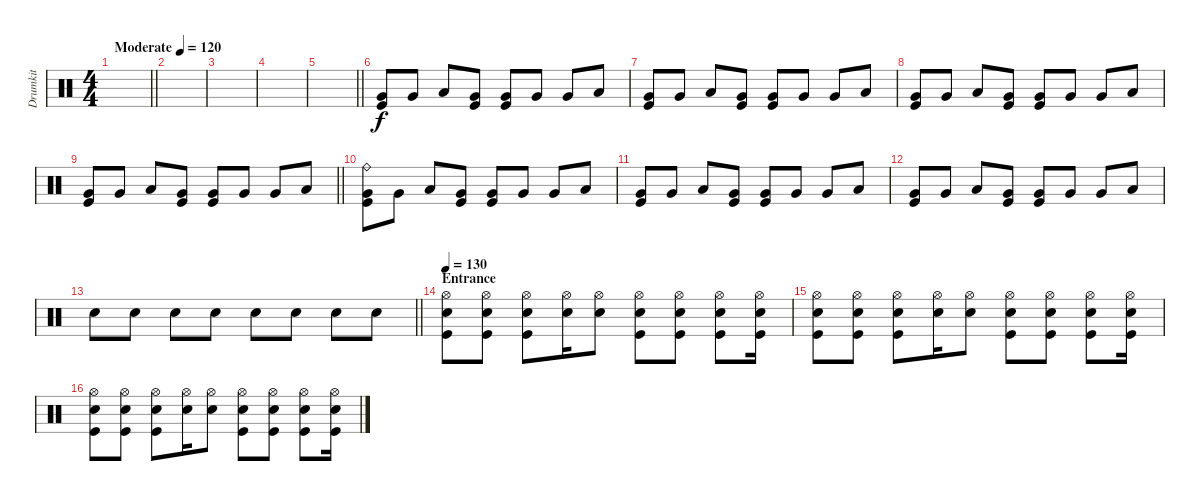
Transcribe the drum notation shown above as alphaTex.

\track ("Drumkit" "Drumkit") {instrument percussion}
\staff {score}
\articulation defaults
\ts (4 4)
\tempo (120 "Moderate")
\clef neutral
\barLineRight lightlight
\ks c
|
|
|
|
\barLineRight lightlight
|
("Very Low Tom (hit)" "Kick (hit)").8 "Very Low Tom (hit)".8 "Low Tom (hit)".8 ("Very Low Tom (hit)" "Kick (hit)").8 ("Very Low Tom (hit)" "Kick (hit)").8 "Very Low Tom (hit)".8 "Very Low Tom (hit)".8 "Low Tom (hit)".8 |
("Very Low Tom (hit)" "Kick (hit)").8 "Very Low Tom (hit)".8 "Low Tom (hit)".8 ("Very Low Tom (hit)" "Kick (hit)").8 ("Very Low Tom (hit)" "Kick (hit)").8 "Very Low Tom (hit)".8 "Very Low Tom (hit)".8 "Low Tom (hit)".8 |
("Very Low Tom (hit)" "Kick (hit)").8 "Very Low Tom (hit)".8 "Low Tom (hit)".8 ("Very Low Tom (hit)" "Kick (hit)").8 ("Very Low Tom (hit)" "Kick (hit)").8 "Very Low Tom (hit)".8 "Very Low Tom (hit)".8 "Low Tom (hit)".8 |
\barLineRight lightlight
("Very Low Tom (hit)" "Kick (hit)").8 "Very Low Tom (hit)".8 "Low Tom (hit)".8 ("Very Low Tom (hit)" "Kick (hit)").8 ("Very Low Tom (hit)" "Kick (hit)").8 "Very Low Tom (hit)".8 "Very Low Tom (hit)".8 "Low Tom (hit)".8 |
("Very Low Tom (hit)" "Kick (hit)" "Ride (bell)").8 "Very Low Tom (hit)".8 "Low Tom (hit)".8 ("Very Low Tom (hit)" "Kick (hit)").8 ("Very Low Tom (hit)" "Kick (hit)").8 "Very Low Tom (hit)".8 "Very Low Tom (hit)".8 "Low Tom (hit)".8 |
("Very Low Tom (hit)" "Kick (hit)").8 "Very Low Tom (hit)".8 "Low Tom (hit)".8 ("Very Low Tom (hit)" "Kick (hit)").8 ("Very Low Tom (hit)" "Kick (hit)").8 "Very Low Tom (hit)".8 "Very Low Tom (hit)".8 "Low Tom (hit)".8 |
("Very Low Tom (hit)" "Kick (hit)").8 "Very Low Tom (hit)".8 "Low Tom (hit)".8 ("Very Low Tom (hit)" "Kick (hit)").8 ("Very Low Tom (hit)" "Kick (hit)").8 "Very Low Tom (hit)".8 "Very Low Tom (hit)".8 "Low Tom (hit)".8 |
\barLineRight lightlight "Snare (hit) 2".8 "Snare (hit) 2".8 "Snare (hit) 2".8 "Snare (hit) 2".8 "Snare (hit) 2".8 "Snare (hit) 2".8 "Snare (hit) 2".8 "Snare (hit) 2".8
|
\section ("" "Entrance")
\tempo 130
("Snare (hit) 2" "Hi-Hat (open)" "Kick (hit)").8 ("Snare (hit) 2" "Hi-Hat (open)" "Kick (hit)").8 ("Snare (hit) 2" "Hi-Hat (open)" "Kick (hit)").8 ("Snare (hit) 2" "Hi-Hat (open)").16 ("Snare (hit) 2" "Hi-Hat (open)").8 ("Snare (hit) 2" "Hi-Hat (open)" "Kick (hit)").8 ("Snare (hit) 2" "Hi-Hat (open)" "Kick (hit)").8 ("Snare (hit) 2" "Hi-Hat (open)" "Kick (hit)").8 ("Snare (hit) 2" "Hi-Hat (open)" "Kick (hit)").16 |
("Snare (hit) 2" "Hi-Hat (open)" "Kick (hit)").8 ("Snare (hit) 2" "Hi-Hat (open)" "Kick (hit)").8 ("Snare (hit) 2" "Hi-Hat (open)" "Kick (hit)").8 ("Snare (hit) 2" "Hi-Hat (open)").16 ("Snare (hit) 2" "Hi-Hat (open)").8 ("Snare (hit) 2" "Hi-Hat (open)" "Kick (hit)").8 ("Snare (hit) 2" "Hi-Hat (open)" "Kick (hit)").8 ("Snare (hit) 2" "Hi-Hat (open)" "Kick (hit)").8 ("Snare (hit) 2" "Hi-Hat (open)" "Kick (hit)").16 |
("Snare (hit) 2" "Hi-Hat (open)" "Kick (hit)").8 ("Snare (hit) 2" "Hi-Hat (open)" "Kick (hit)").8 ("Snare (hit) 2" "Hi-Hat (open)" "Kick (hit)").8 ("Snare (hit) 2" "Hi-Hat (open)").16 ("Snare (hit) 2" "Hi-Hat (open)").8 ("Snare (hit) 2" "Hi-Hat (open)" "Kick (hit)").8 ("Snare (hit) 2" "Hi-Hat (open)" "Kick (hit)").8 ("Snare (hit) 2" "Hi-Hat (open)" "Kick (hit)").8 ("Snare (hit) 2" "Hi-Hat (open)" "Kick (hit)").16
